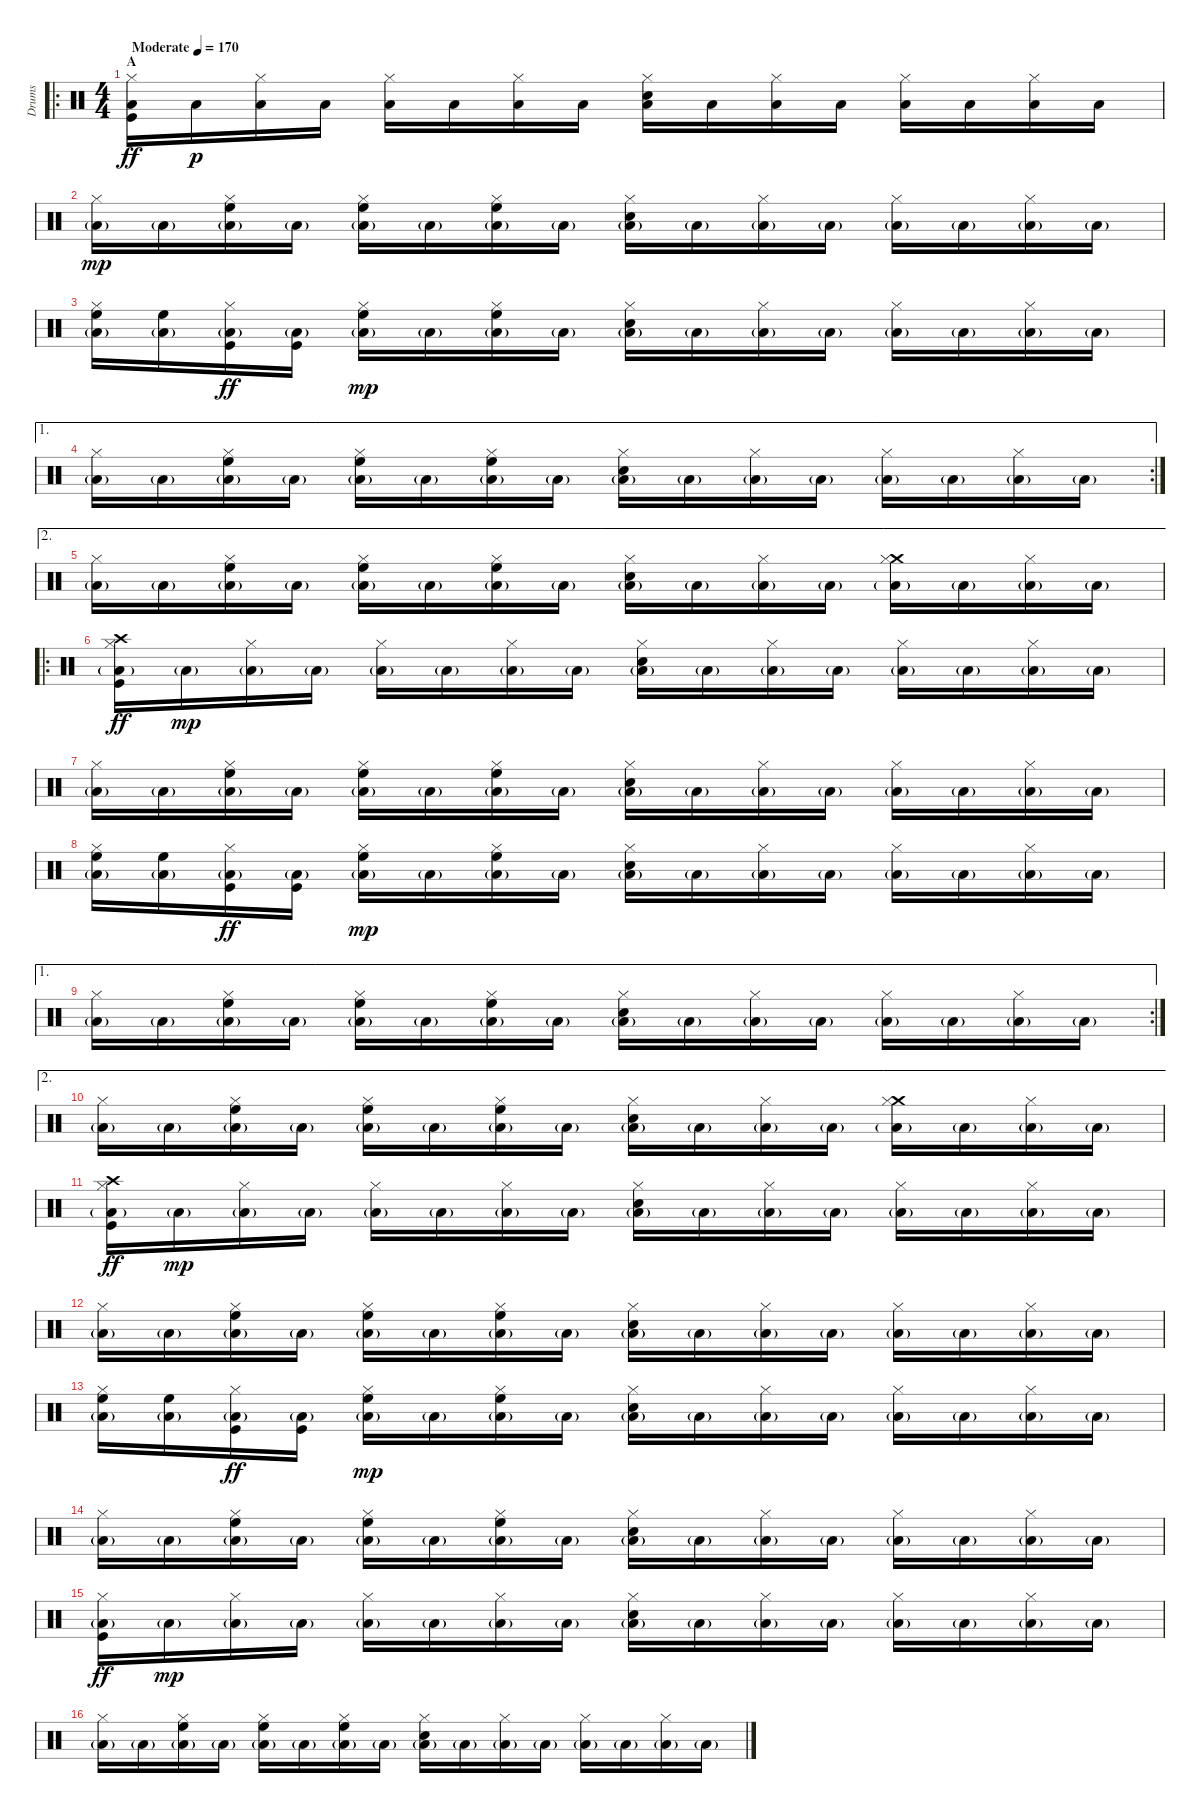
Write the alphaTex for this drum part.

\track ("Drums" "Drums") {instrument percussion}
\staff {score}
\articulation defaults
\ro
\ts (4 4)
\section ("" "A")
\tempo (170 "Moderate")
\clef neutral
\ks c
("Hi-Hat (closed)" "Low Tom (hit)" "Kick (hit)").16{dy ff} "Low Tom (hit)".16{dy p} ("Hi-Hat (closed)" "Low Tom (hit)").16 "Low Tom (hit)".16 ("Hi-Hat (closed)" "Low Tom (hit)").16 "Low Tom (hit)".16 ("Hi-Hat (closed)" "Low Tom (hit)").16 "Low Tom (hit)".16 ("Hi-Hat (closed)" "Snare (hit) 2" "Low Tom (hit)").16 "Low Tom (hit)".16 ("Hi-Hat (closed)" "Low Tom (hit)").16 "Low Tom (hit)".16 ("Hi-Hat (closed)" "Low Tom (hit)").16 "Low Tom (hit)".16 ("Hi-Hat (closed)" "Low Tom (hit)").16 "Low Tom (hit)".16 |
("Hi-Hat (closed)" "Low Tom (hit)"{g}).16{dy mp} "Low Tom (hit)"{g}.16 ("Hi-Hat (closed)" "High Floor Tom (hit)" "Low Tom (hit)"{g}).16 "Low Tom (hit)"{g}.16 ("Hi-Hat (closed)" "High Floor Tom (hit)" "Low Tom (hit)"{g}).16 "Low Tom (hit)"{g}.16 ("Hi-Hat (closed)" "High Floor Tom (hit)" "Low Tom (hit)"{g}).16 "Low Tom (hit)"{g}.16 ("Hi-Hat (closed)" "Snare (hit) 2" "Low Tom (hit)"{g}).16 "Low Tom (hit)"{g}.16 ("Hi-Hat (closed)" "Low Tom (hit)"{g}).16 "Low Tom (hit)"{g}.16 ("Hi-Hat (closed)" "Low Tom (hit)"{g}).16 "Low Tom (hit)"{g}.16 ("Hi-Hat (closed)" "Low Tom (hit)"{g}).16 "Low Tom (hit)"{g}.16 |
("Hi-Hat (closed)" "High Floor Tom (hit)" "Low Tom (hit)"{g}).16 ("High Floor Tom (hit)" "Low Tom (hit)"{g}).16 ("Hi-Hat (closed)" "Low Tom (hit)"{g} "Kick (hit)").16{dy ff} ("Low Tom (hit)"{g} "Kick (hit)").16 ("Hi-Hat (closed)" "High Floor Tom (hit)" "Low Tom (hit)"{g}).16{dy mp} "Low Tom (hit)"{g}.16 ("Hi-Hat (closed)" "High Floor Tom (hit)" "Low Tom (hit)"{g}).16 "Low Tom (hit)"{g}.16 ("Hi-Hat (closed)" "Snare (hit) 2" "Low Tom (hit)"{g}).16 "Low Tom (hit)"{g}.16 ("Hi-Hat (closed)" "Low Tom (hit)"{g}).16 "Low Tom (hit)"{g}.16 ("Hi-Hat (closed)" "Low Tom (hit)"{g}).16 "Low Tom (hit)"{g}.16 ("Hi-Hat (closed)" "Low Tom (hit)"{g}).16 "Low Tom (hit)"{g}.16 |
\ae 1
\rc 2
("Hi-Hat (closed)" "Low Tom (hit)"{g}).16 "Low Tom (hit)"{g}.16 ("Hi-Hat (closed)" "High Floor Tom (hit)" "Low Tom (hit)"{g}).16 "Low Tom (hit)"{g}.16 ("Hi-Hat (closed)" "High Floor Tom (hit)" "Low Tom (hit)"{g}).16 "Low Tom (hit)"{g}.16 ("Hi-Hat (closed)" "High Floor Tom (hit)" "Low Tom (hit)"{g}).16 "Low Tom (hit)"{g}.16 ("Hi-Hat (closed)" "Snare (hit) 2" "Low Tom (hit)"{g}).16 "Low Tom (hit)"{g}.16 ("Hi-Hat (closed)" "Low Tom (hit)"{g}).16 "Low Tom (hit)"{g}.16 ("Hi-Hat (closed)" "Low Tom (hit)"{g}).16 "Low Tom (hit)"{g}.16 ("Hi-Hat (closed)" "Low Tom (hit)"{g}).16 "Low Tom (hit)"{g}.16 |
\ae 2
("Hi-Hat (closed)" "Low Tom (hit)"{g}).16 "Low Tom (hit)"{g}.16 ("Hi-Hat (closed)" "High Floor Tom (hit)" "Low Tom (hit)"{g}).16 "Low Tom (hit)"{g}.16 ("Hi-Hat (closed)" "High Floor Tom (hit)" "Low Tom (hit)"{g}).16 "Low Tom (hit)"{g}.16 ("Hi-Hat (closed)" "High Floor Tom (hit)" "Low Tom (hit)"{g}).16 "Low Tom (hit)"{g}.16 ("Hi-Hat (closed)" "Snare (hit) 2" "Low Tom (hit)"{g}).16 "Low Tom (hit)"{g}.16 ("Hi-Hat (closed)" "Low Tom (hit)"{g}).16 "Low Tom (hit)"{g}.16 ("Crash medium (hit)" "Hi-Hat (closed)" "Low Tom (hit)"{g}).16 "Low Tom (hit)"{g}.16 ("Hi-Hat (closed)" "Low Tom (hit)"{g}).16 "Low Tom (hit)"{g}.16 |
\ro
("Crash high (hit)" "Hi-Hat (closed)" "Low Tom (hit)"{g} "Kick (hit)").16{dy ff} "Low Tom (hit)"{g}.16{dy mp} ("Hi-Hat (closed)" "Low Tom (hit)"{g}).16 "Low Tom (hit)"{g}.16 ("Hi-Hat (closed)" "Low Tom (hit)"{g}).16 "Low Tom (hit)"{g}.16 ("Hi-Hat (closed)" "Low Tom (hit)"{g}).16 "Low Tom (hit)"{g}.16 ("Hi-Hat (closed)" "Snare (hit) 2" "Low Tom (hit)"{g}).16 "Low Tom (hit)"{g}.16 ("Hi-Hat (closed)" "Low Tom (hit)"{g}).16 "Low Tom (hit)"{g}.16 ("Hi-Hat (closed)" "Low Tom (hit)"{g}).16 "Low Tom (hit)"{g}.16 ("Hi-Hat (closed)" "Low Tom (hit)"{g}).16 "Low Tom (hit)"{g}.16 |
("Hi-Hat (closed)" "Low Tom (hit)"{g}).16 "Low Tom (hit)"{g}.16 ("Hi-Hat (closed)" "High Floor Tom (hit)" "Low Tom (hit)"{g}).16 "Low Tom (hit)"{g}.16 ("Hi-Hat (closed)" "High Floor Tom (hit)" "Low Tom (hit)"{g}).16 "Low Tom (hit)"{g}.16 ("Hi-Hat (closed)" "High Floor Tom (hit)" "Low Tom (hit)"{g}).16 "Low Tom (hit)"{g}.16 ("Hi-Hat (closed)" "Snare (hit) 2" "Low Tom (hit)"{g}).16 "Low Tom (hit)"{g}.16 ("Hi-Hat (closed)" "Low Tom (hit)"{g}).16 "Low Tom (hit)"{g}.16 ("Hi-Hat (closed)" "Low Tom (hit)"{g}).16 "Low Tom (hit)"{g}.16 ("Hi-Hat (closed)" "Low Tom (hit)"{g}).16 "Low Tom (hit)"{g}.16 |
("Hi-Hat (closed)" "High Floor Tom (hit)" "Low Tom (hit)"{g}).16 ("High Floor Tom (hit)" "Low Tom (hit)"{g}).16 ("Hi-Hat (closed)" "Low Tom (hit)"{g} "Kick (hit)").16{dy ff} ("Low Tom (hit)"{g} "Kick (hit)").16 ("Hi-Hat (closed)" "High Floor Tom (hit)" "Low Tom (hit)"{g}).16{dy mp} "Low Tom (hit)"{g}.16 ("Hi-Hat (closed)" "High Floor Tom (hit)" "Low Tom (hit)"{g}).16 "Low Tom (hit)"{g}.16 ("Hi-Hat (closed)" "Snare (hit) 2" "Low Tom (hit)"{g}).16 "Low Tom (hit)"{g}.16 ("Hi-Hat (closed)" "Low Tom (hit)"{g}).16 "Low Tom (hit)"{g}.16 ("Hi-Hat (closed)" "Low Tom (hit)"{g}).16 "Low Tom (hit)"{g}.16 ("Hi-Hat (closed)" "Low Tom (hit)"{g}).16 "Low Tom (hit)"{g}.16 |
\ae 1
\rc 2
("Hi-Hat (closed)" "Low Tom (hit)"{g}).16 "Low Tom (hit)"{g}.16 ("Hi-Hat (closed)" "High Floor Tom (hit)" "Low Tom (hit)"{g}).16 "Low Tom (hit)"{g}.16 ("Hi-Hat (closed)" "High Floor Tom (hit)" "Low Tom (hit)"{g}).16 "Low Tom (hit)"{g}.16 ("Hi-Hat (closed)" "High Floor Tom (hit)" "Low Tom (hit)"{g}).16 "Low Tom (hit)"{g}.16 ("Hi-Hat (closed)" "Snare (hit) 2" "Low Tom (hit)"{g}).16 "Low Tom (hit)"{g}.16 ("Hi-Hat (closed)" "Low Tom (hit)"{g}).16 "Low Tom (hit)"{g}.16 ("Hi-Hat (closed)" "Low Tom (hit)"{g}).16 "Low Tom (hit)"{g}.16 ("Hi-Hat (closed)" "Low Tom (hit)"{g}).16 "Low Tom (hit)"{g}.16 |
\ae 2
("Hi-Hat (closed)" "Low Tom (hit)"{g}).16 "Low Tom (hit)"{g}.16 ("Hi-Hat (closed)" "High Floor Tom (hit)" "Low Tom (hit)"{g}).16 "Low Tom (hit)"{g}.16 ("Hi-Hat (closed)" "High Floor Tom (hit)" "Low Tom (hit)"{g}).16 "Low Tom (hit)"{g}.16 ("Hi-Hat (closed)" "High Floor Tom (hit)" "Low Tom (hit)"{g}).16 "Low Tom (hit)"{g}.16 ("Hi-Hat (closed)" "Snare (hit) 2" "Low Tom (hit)"{g}).16 "Low Tom (hit)"{g}.16 ("Hi-Hat (closed)" "Low Tom (hit)"{g}).16 "Low Tom (hit)"{g}.16 ("Crash medium (hit)" "Hi-Hat (closed)" "Low Tom (hit)"{g}).16 "Low Tom (hit)"{g}.16 ("Hi-Hat (closed)" "Low Tom (hit)"{g}).16 "Low Tom (hit)"{g}.16 |
("Crash high (hit)" "Hi-Hat (closed)" "Low Tom (hit)"{g} "Kick (hit)").16{dy ff} "Low Tom (hit)"{g}.16{dy mp} ("Hi-Hat (closed)" "Low Tom (hit)"{g}).16 "Low Tom (hit)"{g}.16 ("Hi-Hat (closed)" "Low Tom (hit)"{g}).16 "Low Tom (hit)"{g}.16 ("Hi-Hat (closed)" "Low Tom (hit)"{g}).16 "Low Tom (hit)"{g}.16 ("Hi-Hat (closed)" "Snare (hit) 2" "Low Tom (hit)"{g}).16 "Low Tom (hit)"{g}.16 ("Hi-Hat (closed)" "Low Tom (hit)"{g}).16 "Low Tom (hit)"{g}.16 ("Hi-Hat (closed)" "Low Tom (hit)"{g}).16 "Low Tom (hit)"{g}.16 ("Hi-Hat (closed)" "Low Tom (hit)"{g}).16 "Low Tom (hit)"{g}.16 |
("Hi-Hat (closed)" "Low Tom (hit)"{g}).16 "Low Tom (hit)"{g}.16 ("Hi-Hat (closed)" "High Floor Tom (hit)" "Low Tom (hit)"{g}).16 "Low Tom (hit)"{g}.16 ("Hi-Hat (closed)" "High Floor Tom (hit)" "Low Tom (hit)"{g}).16 "Low Tom (hit)"{g}.16 ("Hi-Hat (closed)" "High Floor Tom (hit)" "Low Tom (hit)"{g}).16 "Low Tom (hit)"{g}.16 ("Hi-Hat (closed)" "Snare (hit) 2" "Low Tom (hit)"{g}).16 "Low Tom (hit)"{g}.16 ("Hi-Hat (closed)" "Low Tom (hit)"{g}).16 "Low Tom (hit)"{g}.16 ("Hi-Hat (closed)" "Low Tom (hit)"{g}).16 "Low Tom (hit)"{g}.16 ("Hi-Hat (closed)" "Low Tom (hit)"{g}).16 "Low Tom (hit)"{g}.16 |
("Hi-Hat (closed)" "High Floor Tom (hit)" "Low Tom (hit)"{g}).16 ("High Floor Tom (hit)" "Low Tom (hit)"{g}).16 ("Hi-Hat (closed)" "Low Tom (hit)"{g} "Kick (hit)").16{dy ff} ("Low Tom (hit)"{g} "Kick (hit)").16 ("Hi-Hat (closed)" "High Floor Tom (hit)" "Low Tom (hit)"{g}).16{dy mp} "Low Tom (hit)"{g}.16 ("Hi-Hat (closed)" "High Floor Tom (hit)" "Low Tom (hit)"{g}).16 "Low Tom (hit)"{g}.16 ("Hi-Hat (closed)" "Snare (hit) 2" "Low Tom (hit)"{g}).16 "Low Tom (hit)"{g}.16 ("Hi-Hat (closed)" "Low Tom (hit)"{g}).16 "Low Tom (hit)"{g}.16 ("Hi-Hat (closed)" "Low Tom (hit)"{g}).16 "Low Tom (hit)"{g}.16 ("Hi-Hat (closed)" "Low Tom (hit)"{g}).16 "Low Tom (hit)"{g}.16 |
("Hi-Hat (closed)" "Low Tom (hit)"{g}).16 "Low Tom (hit)"{g}.16 ("Hi-Hat (closed)" "High Floor Tom (hit)" "Low Tom (hit)"{g}).16 "Low Tom (hit)"{g}.16 ("Hi-Hat (closed)" "High Floor Tom (hit)" "Low Tom (hit)"{g}).16 "Low Tom (hit)"{g}.16 ("Hi-Hat (closed)" "High Floor Tom (hit)" "Low Tom (hit)"{g}).16 "Low Tom (hit)"{g}.16 ("Hi-Hat (closed)" "Snare (hit) 2" "Low Tom (hit)"{g}).16 "Low Tom (hit)"{g}.16 ("Hi-Hat (closed)" "Low Tom (hit)"{g}).16 "Low Tom (hit)"{g}.16 ("Hi-Hat (closed)" "Low Tom (hit)"{g}).16 "Low Tom (hit)"{g}.16 ("Hi-Hat (closed)" "Low Tom (hit)"{g}).16 "Low Tom (hit)"{g}.16 |
("Hi-Hat (closed)" "Low Tom (hit)"{g} "Kick (hit)").16{dy ff} "Low Tom (hit)"{g}.16{dy mp} ("Hi-Hat (closed)" "Low Tom (hit)"{g}).16 "Low Tom (hit)"{g}.16 ("Hi-Hat (closed)" "Low Tom (hit)"{g}).16 "Low Tom (hit)"{g}.16 ("Hi-Hat (closed)" "Low Tom (hit)"{g}).16 "Low Tom (hit)"{g}.16 ("Hi-Hat (closed)" "Snare (hit) 2" "Low Tom (hit)"{g}).16 "Low Tom (hit)"{g}.16 ("Hi-Hat (closed)" "Low Tom (hit)"{g}).16 "Low Tom (hit)"{g}.16 ("Hi-Hat (closed)" "Low Tom (hit)"{g}).16 "Low Tom (hit)"{g}.16 ("Hi-Hat (closed)" "Low Tom (hit)"{g}).16 "Low Tom (hit)"{g}.16 |
("Hi-Hat (closed)" "Low Tom (hit)"{g}).16 "Low Tom (hit)"{g}.16 ("Hi-Hat (closed)" "High Floor Tom (hit)" "Low Tom (hit)"{g}).16 "Low Tom (hit)"{g}.16 ("Hi-Hat (closed)" "High Floor Tom (hit)" "Low Tom (hit)"{g}).16 "Low Tom (hit)"{g}.16 ("Hi-Hat (closed)" "High Floor Tom (hit)" "Low Tom (hit)"{g}).16 "Low Tom (hit)"{g}.16 ("Hi-Hat (closed)" "Snare (hit) 2" "Low Tom (hit)"{g}).16 "Low Tom (hit)"{g}.16 ("Hi-Hat (closed)" "Low Tom (hit)"{g}).16 "Low Tom (hit)"{g}.16 ("Hi-Hat (closed)" "Low Tom (hit)"{g}).16 "Low Tom (hit)"{g}.16 ("Hi-Hat (closed)" "Low Tom (hit)"{g}).16 "Low Tom (hit)"{g}.16
